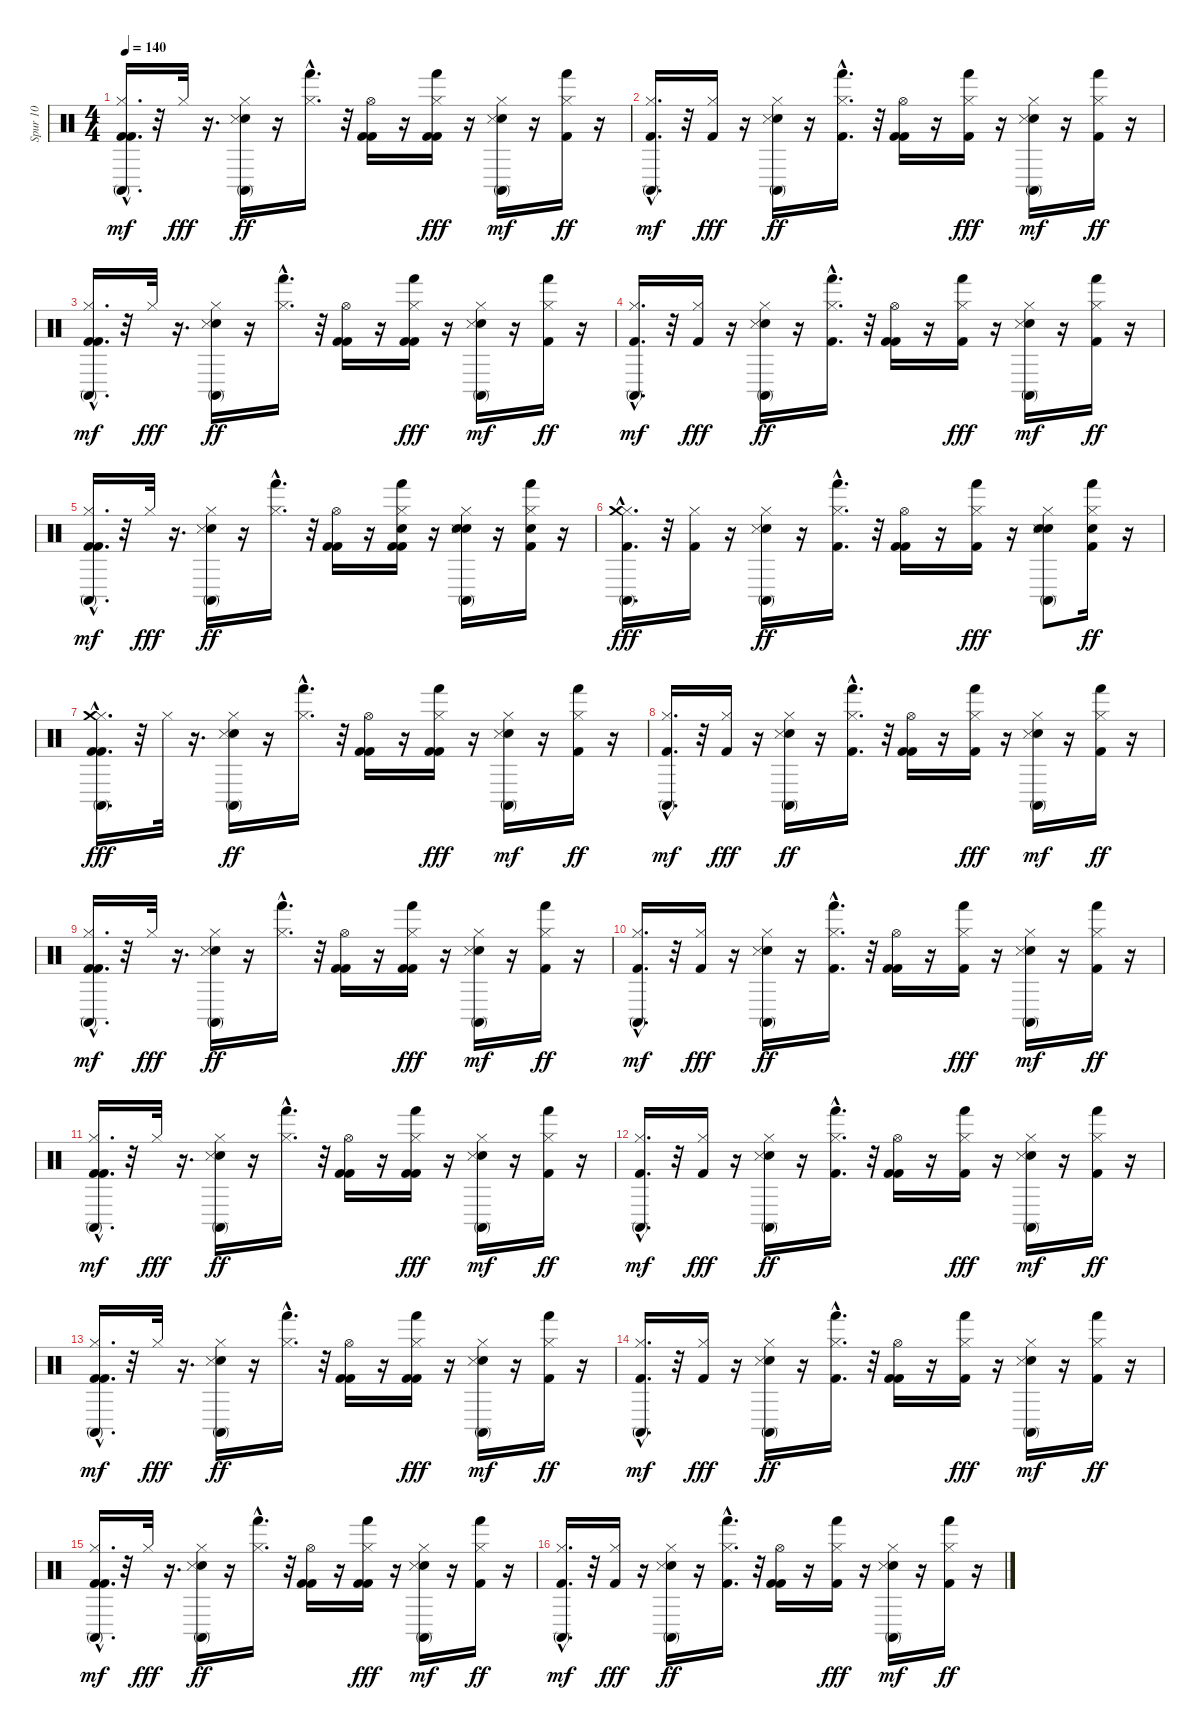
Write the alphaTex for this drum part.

\track ("Spur 10" "Spur 10") {instrument percussion}
\staff {score}
\articulation defaults
\ts (4 4)
\tempo 140
\clef neutral
\ks c
("Kick (hit) 2" "Hi-Hat (closed)" "Kick (hit) 2" "Conga high (mute)"{hac}).16{d dy mf} r.32 "Hi-Hat (closed)".32{dy fff} r.16{d} ("Electric Snare (hit)" "Hi-Hat (closed)" "Snare (side stick) 3" "Conga high (mute)").16{dy ff} r.16 ("Hi-Hat (closed)" "Hand (hit)"{hac}).16{d} r.32 ("Kick (hit) 2" "Hi-Hat (open)" "Kick (hit) 2").16 r.16 ("Kick (hit) 2" "Hi-Hat (closed)" "Kick (hit) 2" "Hand (hit)").16{dy fff} r.16 ("Electric Snare (hit)" "Hi-Hat (closed)" "Snare (side stick) 3" "Conga high (mute)").16{dy mf} r.16 ("Kick (hit) 2" "Hi-Hat (closed)" "Hand (hit)").16{dy ff} r.16 |
("Hi-Hat (closed)" "Kick (hit) 2" "Conga high (mute)"{hac}).16{d dy mf} r.32 ("Kick (hit) 2" "Hi-Hat (closed)").16{dy fff} r.16 ("Electric Snare (hit)" "Hi-Hat (closed)" "Snare (side stick) 3" "Conga high (mute)").16{dy ff} r.16 ("Kick (hit) 2" "Hi-Hat (closed)" "Hand (hit)"{hac}).16{d} r.32 ("Kick (hit) 2" "Hi-Hat (open)" "Kick (hit) 2").16 r.16 ("Hi-Hat (closed)" "Kick (hit) 2" "Hand (hit)").16{dy fff} r.16 ("Electric Snare (hit)" "Hi-Hat (closed)" "Snare (side stick) 3" "Conga high (mute)").16{dy mf} r.16 ("Kick (hit) 2" "Hi-Hat (closed)" "Hand (hit)").16{dy ff} r.16 |
("Kick (hit) 2" "Hi-Hat (closed)" "Kick (hit) 2" "Conga high (mute)"{hac}).16{d dy mf} r.32 "Hi-Hat (closed)".32{dy fff} r.16{d} ("Electric Snare (hit)" "Hi-Hat (closed)" "Snare (side stick) 3" "Conga high (mute)").16{dy ff} r.16 ("Hi-Hat (closed)" "Hand (hit)"{hac}).16{d} r.32 ("Kick (hit) 2" "Hi-Hat (open)" "Kick (hit) 2").16 r.16 ("Kick (hit) 2" "Hi-Hat (closed)" "Kick (hit) 2" "Hand (hit)").16{dy fff} r.16 ("Electric Snare (hit)" "Hi-Hat (closed)" "Snare (side stick) 3" "Conga high (mute)").16{dy mf} r.16 ("Kick (hit) 2" "Hi-Hat (closed)" "Hand (hit)").16{dy ff} r.16 |
("Hi-Hat (closed)" "Kick (hit) 2" "Conga high (mute)"{hac}).16{d dy mf} r.32 ("Hi-Hat (closed)" "Kick (hit) 2").16{dy fff} r.16 ("Hi-Hat (closed)" "Electric Snare (hit)" "Snare (side stick) 3" "Conga high (mute)").16{dy ff} r.16 ("Hi-Hat (closed)" "Kick (hit) 2" "Hand (hit)"{hac}).16{d} r.32 ("Hi-Hat (open)" "Kick (hit) 2" "Kick (hit) 2").16 r.16 ("Hi-Hat (closed)" "Kick (hit) 2" "Hand (hit)").16{dy fff} r.16 ("Hi-Hat (closed)" "Electric Snare (hit)" "Snare (side stick) 3" "Conga high (mute)").16{dy mf} r.16 ("Hi-Hat (closed)" "Kick (hit) 2" "Hand (hit)").16{dy ff} r.16 |
("Hi-Hat (closed)" "Kick (hit) 2" "Kick (hit) 2" "Conga high (mute)"{hac}).16{d dy mf} r.32 "Hi-Hat (closed)".32{dy fff} r.16{d} ("Hi-Hat (closed)" "Electric Snare (hit)" "Snare (side stick) 3" "Conga high (mute)").16{dy ff} r.16 ("Hi-Hat (closed)" "Hand (hit)"{hac}).16{d} r.32 ("Hi-Hat (open)" "Kick (hit) 2" "Kick (hit) 2").16 r.16 ("Hi-Hat (closed)" "Kick (hit) 2" "Kick (hit) 2" "Hand (hit)" "Electric Snare (hit)").16 r.16 ("Hi-Hat (closed)" "Electric Snare (hit)" "Snare (side stick) 3" "Conga high (mute)" "Electric Snare (hit)").16 r.16 ("Hi-Hat (closed)" "Kick (hit) 2" "Hand (hit)" "Electric Snare (hit)").16 r.16 |
("Hi-Hat (closed)" "Kick (hit) 2" "Conga high (mute)"{hac} "Crash medium (hit)").16{d dy fff} r.32 ("Hi-Hat (closed)" "Kick (hit) 2").16 r.16 ("Hi-Hat (closed)" "Electric Snare (hit)" "Snare (side stick) 3" "Conga high (mute)").16{dy ff} r.16 ("Hi-Hat (closed)" "Kick (hit) 2" "Hand (hit)"{hac}).16{d} r.32 ("Hi-Hat (open)" "Kick (hit) 2" "Kick (hit) 2").16 r.16 ("Hi-Hat (closed)" "Kick (hit) 2" "Hand (hit)").16{dy fff} r.16 ("Hi-Hat (closed)" "Electric Snare (hit)" "Snare (side stick) 3" "Conga high (mute)" "Electric Snare (hit)").8 ("Hi-Hat (closed)" "Kick (hit) 2" "Hand (hit)" "Electric Snare (hit)").16{dy ff} r.16 |
("Kick (hit) 2" "Hi-Hat (closed)" "Kick (hit) 2" "Conga high (mute)"{hac} "Crash medium (hit)").16{d dy fff} r.32 "Hi-Hat (closed)".32 r.16{d} ("Electric Snare (hit)" "Hi-Hat (closed)" "Snare (side stick) 3" "Conga high (mute)").16{dy ff} r.16 ("Hi-Hat (closed)" "Hand (hit)"{hac}).16{d} r.32 ("Kick (hit) 2" "Hi-Hat (open)" "Kick (hit) 2").16 r.16 ("Kick (hit) 2" "Hi-Hat (closed)" "Kick (hit) 2" "Hand (hit)").16{dy fff} r.16 ("Electric Snare (hit)" "Hi-Hat (closed)" "Snare (side stick) 3" "Conga high (mute)").16{dy mf} r.16 ("Kick (hit) 2" "Hi-Hat (closed)" "Hand (hit)").16{dy ff} r.16 |
("Hi-Hat (closed)" "Kick (hit) 2" "Conga high (mute)"{hac}).16{d dy mf} r.32 ("Kick (hit) 2" "Hi-Hat (closed)").16{dy fff} r.16 ("Electric Snare (hit)" "Hi-Hat (closed)" "Snare (side stick) 3" "Conga high (mute)").16{dy ff} r.16 ("Kick (hit) 2" "Hi-Hat (closed)" "Hand (hit)"{hac}).16{d} r.32 ("Kick (hit) 2" "Hi-Hat (open)" "Kick (hit) 2").16 r.16 ("Hi-Hat (closed)" "Kick (hit) 2" "Hand (hit)").16{dy fff} r.16 ("Electric Snare (hit)" "Hi-Hat (closed)" "Snare (side stick) 3" "Conga high (mute)").16{dy mf} r.16 ("Kick (hit) 2" "Hi-Hat (closed)" "Hand (hit)").16{dy ff} r.16 |
("Kick (hit) 2" "Hi-Hat (closed)" "Kick (hit) 2" "Conga high (mute)"{hac}).16{d dy mf} r.32 "Hi-Hat (closed)".32{dy fff} r.16{d} ("Electric Snare (hit)" "Hi-Hat (closed)" "Snare (side stick) 3" "Conga high (mute)").16{dy ff} r.16 ("Hi-Hat (closed)" "Hand (hit)"{hac}).16{d} r.32 ("Kick (hit) 2" "Hi-Hat (open)" "Kick (hit) 2").16 r.16 ("Kick (hit) 2" "Hi-Hat (closed)" "Kick (hit) 2" "Hand (hit)").16{dy fff} r.16 ("Electric Snare (hit)" "Hi-Hat (closed)" "Snare (side stick) 3" "Conga high (mute)").16{dy mf} r.16 ("Kick (hit) 2" "Hi-Hat (closed)" "Hand (hit)").16{dy ff} r.16 |
("Hi-Hat (closed)" "Kick (hit) 2" "Conga high (mute)"{hac}).16{d dy mf} r.32 ("Kick (hit) 2" "Hi-Hat (closed)").16{dy fff} r.16 ("Electric Snare (hit)" "Hi-Hat (closed)" "Snare (side stick) 3" "Conga high (mute)").16{dy ff} r.16 ("Kick (hit) 2" "Hi-Hat (closed)" "Hand (hit)"{hac}).16{d} r.32 ("Kick (hit) 2" "Hi-Hat (open)" "Kick (hit) 2").16 r.16 ("Hi-Hat (closed)" "Kick (hit) 2" "Hand (hit)").16{dy fff} r.16 ("Electric Snare (hit)" "Hi-Hat (closed)" "Snare (side stick) 3" "Conga high (mute)").16{dy mf} r.16 ("Kick (hit) 2" "Hi-Hat (closed)" "Hand (hit)").16{dy ff} r.16 |
("Hi-Hat (closed)" "Kick (hit) 2" "Kick (hit) 2" "Conga high (mute)"{hac}).16{d dy mf} r.32 "Hi-Hat (closed)".32{dy fff} r.16{d} ("Hi-Hat (closed)" "Electric Snare (hit)" "Snare (side stick) 3" "Conga high (mute)").16{dy ff} r.16 ("Hi-Hat (closed)" "Hand (hit)"{hac}).16{d} r.32 ("Hi-Hat (open)" "Kick (hit) 2" "Kick (hit) 2").16 r.16 ("Hi-Hat (closed)" "Kick (hit) 2" "Kick (hit) 2" "Hand (hit)").16{dy fff} r.16 ("Hi-Hat (closed)" "Electric Snare (hit)" "Snare (side stick) 3" "Conga high (mute)").16{dy mf} r.16 ("Hi-Hat (closed)" "Kick (hit) 2" "Hand (hit)").16{dy ff} r.16 |
("Hi-Hat (closed)" "Kick (hit) 2" "Conga high (mute)"{hac}).16{d dy mf} r.32 ("Hi-Hat (closed)" "Kick (hit) 2").16{dy fff} r.16 ("Hi-Hat (closed)" "Electric Snare (hit)" "Snare (side stick) 3" "Conga high (mute)").16{dy ff} r.16 ("Hi-Hat (closed)" "Kick (hit) 2" "Hand (hit)"{hac}).16{d} r.32 ("Hi-Hat (open)" "Kick (hit) 2" "Kick (hit) 2").16 r.16 ("Hi-Hat (closed)" "Kick (hit) 2" "Hand (hit)").16{dy fff} r.16 ("Hi-Hat (closed)" "Electric Snare (hit)" "Snare (side stick) 3" "Conga high (mute)").16{dy mf} r.16 ("Hi-Hat (closed)" "Kick (hit) 2" "Hand (hit)").16{dy ff} r.16 |
("Hi-Hat (closed)" "Kick (hit) 2" "Kick (hit) 2" "Conga high (mute)"{hac}).16{d dy mf} r.32 "Hi-Hat (closed)".32{dy fff} r.16{d} ("Hi-Hat (closed)" "Electric Snare (hit)" "Snare (side stick) 3" "Conga high (mute)").16{dy ff} r.16 ("Hi-Hat (closed)" "Hand (hit)"{hac}).16{d} r.32 ("Hi-Hat (open)" "Kick (hit) 2" "Kick (hit) 2").16 r.16 ("Hi-Hat (closed)" "Kick (hit) 2" "Kick (hit) 2" "Hand (hit)").16{dy fff} r.16 ("Hi-Hat (closed)" "Electric Snare (hit)" "Snare (side stick) 3" "Conga high (mute)").16{dy mf} r.16 ("Hi-Hat (closed)" "Kick (hit) 2" "Hand (hit)").16{dy ff} r.16 |
("Hi-Hat (closed)" "Kick (hit) 2" "Conga high (mute)"{hac}).16{d dy mf} r.32 ("Kick (hit) 2" "Hi-Hat (closed)").16{dy fff} r.16 ("Electric Snare (hit)" "Hi-Hat (closed)" "Snare (side stick) 3" "Conga high (mute)").16{dy ff} r.16 ("Kick (hit) 2" "Hi-Hat (closed)" "Hand (hit)"{hac}).16{d} r.32 ("Kick (hit) 2" "Hi-Hat (open)" "Kick (hit) 2").16 r.16 ("Hi-Hat (closed)" "Kick (hit) 2" "Hand (hit)").16{dy fff} r.16 ("Electric Snare (hit)" "Hi-Hat (closed)" "Snare (side stick) 3" "Conga high (mute)").16{dy mf} r.16 ("Kick (hit) 2" "Hi-Hat (closed)" "Hand (hit)").16{dy ff} r.16 |
("Hi-Hat (closed)" "Kick (hit) 2" "Kick (hit) 2" "Conga high (mute)"{hac}).16{d dy mf} r.32 "Hi-Hat (closed)".32{dy fff} r.16{d} ("Hi-Hat (closed)" "Electric Snare (hit)" "Snare (side stick) 3" "Conga high (mute)").16{dy ff} r.16 ("Hi-Hat (closed)" "Hand (hit)"{hac}).16{d} r.32 ("Hi-Hat (open)" "Kick (hit) 2" "Kick (hit) 2").16 r.16 ("Hi-Hat (closed)" "Kick (hit) 2" "Kick (hit) 2" "Hand (hit)").16{dy fff} r.16 ("Hi-Hat (closed)" "Electric Snare (hit)" "Snare (side stick) 3" "Conga high (mute)").16{dy mf} r.16 ("Hi-Hat (closed)" "Kick (hit) 2" "Hand (hit)").16{dy ff} r.16 |
("Hi-Hat (closed)" "Kick (hit) 2" "Conga high (mute)"{hac}).16{d dy mf} r.32 ("Hi-Hat (closed)" "Kick (hit) 2").16{dy fff} r.16 ("Hi-Hat (closed)" "Electric Snare (hit)" "Snare (side stick) 3" "Conga high (mute)").16{dy ff} r.16 ("Hi-Hat (closed)" "Kick (hit) 2" "Hand (hit)"{hac}).16{d} r.32 ("Hi-Hat (open)" "Kick (hit) 2" "Kick (hit) 2").16 r.16 ("Hi-Hat (closed)" "Kick (hit) 2" "Hand (hit)").16{dy fff} r.16 ("Hi-Hat (closed)" "Electric Snare (hit)" "Snare (side stick) 3" "Conga high (mute)").16{dy mf} r.16 ("Hi-Hat (closed)" "Kick (hit) 2" "Hand (hit)").16{dy ff} r.16
